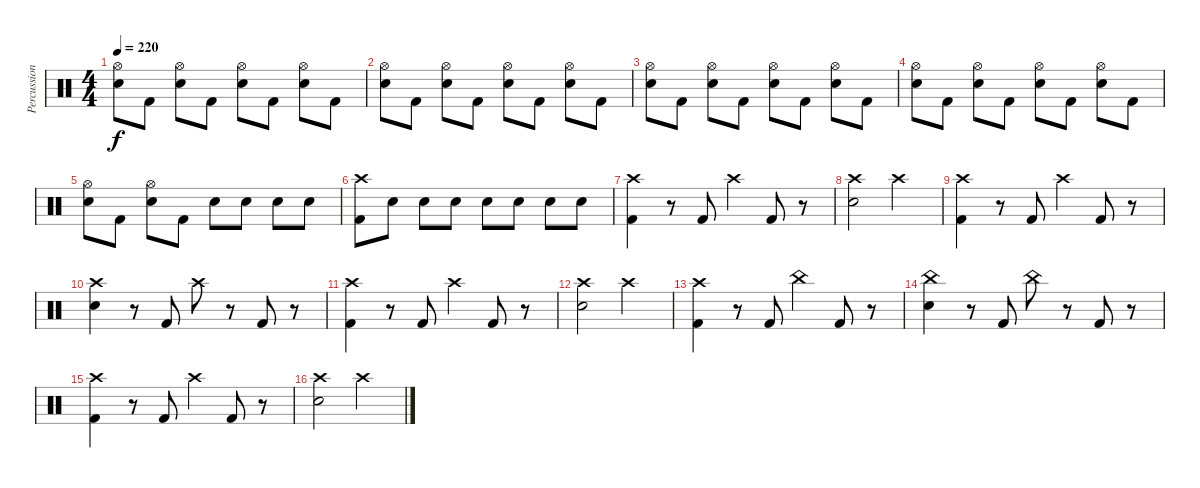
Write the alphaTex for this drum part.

\track ("Percussion" "Percussion") {instrument percussion}
\staff {score}
\articulation defaults
\ts (4 4)
\tempo 220
\clef neutral
\ks c
("Hi-Hat (open)" "Snare (hit) 2").8{dy f} "Kick (hit) 2".8 ("Hi-Hat (open)" "Snare (hit) 2").8 "Kick (hit) 2".8 ("Hi-Hat (open)" "Snare (hit) 2").8 "Kick (hit) 2".8 ("Hi-Hat (open)" "Snare (hit) 2").8 "Kick (hit) 2".8 |
("Hi-Hat (open)" "Snare (hit) 2").8 "Kick (hit) 2".8 ("Hi-Hat (open)" "Snare (hit) 2").8 "Kick (hit) 2".8 ("Hi-Hat (open)" "Snare (hit) 2").8 "Kick (hit) 2".8 ("Hi-Hat (open)" "Snare (hit) 2").8 "Kick (hit) 2".8 |
("Hi-Hat (open)" "Snare (hit) 2").8 "Kick (hit) 2".8 ("Hi-Hat (open)" "Snare (hit) 2").8 "Kick (hit) 2".8 ("Hi-Hat (open)" "Snare (hit) 2").8 "Kick (hit) 2".8 ("Hi-Hat (open)" "Snare (hit) 2").8 "Kick (hit) 2".8 |
("Hi-Hat (open)" "Snare (hit) 2").8 "Kick (hit) 2".8 ("Hi-Hat (open)" "Snare (hit) 2").8 "Kick (hit) 2".8 ("Hi-Hat (open)" "Snare (hit) 2").8 "Kick (hit) 2".8 ("Hi-Hat (open)" "Snare (hit) 2").8 "Kick (hit) 2".8 |
("Hi-Hat (open)" "Snare (hit) 2").8 "Kick (hit) 2".8 ("Hi-Hat (open)" "Snare (hit) 2").8 "Kick (hit) 2".8 "Snare (hit) 2".8 "Snare (hit) 2".8 "Snare (hit) 2".8 "Snare (hit) 2".8 |
("Crash high (hit)" "Kick (hit) 2").8 "Snare (hit) 2".8 "Snare (hit) 2".8 "Snare (hit) 2".8 "Snare (hit) 2".8 "Snare (hit) 2".8 "Snare (hit) 2".8 "Snare (hit) 2".8 |
("Crash high (hit)" "Kick (hit) 2").4 r.8 "Kick (hit) 2".8 "Crash high (hit)".4 "Kick (hit) 2".8 r.8 |
("Crash high (hit)" "Snare (hit) 2").2 "Crash high (hit)".2 |
("Crash high (hit)" "Kick (hit) 2").4 r.8 "Kick (hit) 2".8 "Crash high (hit)".4 "Kick (hit) 2".8 r.8 |
("Crash high (hit)" "Snare (hit) 2").4 r.8 "Kick (hit) 2".8 "Crash high (hit)".8 r.8 "Kick (hit) 2".8 r.8 |
("Crash high (hit)" "Kick (hit) 2").4 r.8 "Kick (hit) 2".8 "Crash high (hit)".4 "Kick (hit) 2".8 r.8 |
("Crash high (hit)" "Snare (hit) 2").2 "Crash high (hit)".2 |
("Crash high (hit)" "Kick (hit) 2").4 r.8 "Kick (hit) 2".8 "China (hit)".4 "Kick (hit) 2".8 r.8 |
("China (hit)" "Snare (hit) 2").4 r.8 "Kick (hit) 2".8 "China (hit)".8 r.8 "Kick (hit) 2".8 r.8 |
("Crash high (hit)" "Kick (hit) 2").4 r.8 "Kick (hit) 2".8 "Crash high (hit)".4 "Kick (hit) 2".8 r.8 |
("Crash high (hit)" "Snare (hit) 2").2 "Crash high (hit)".2
